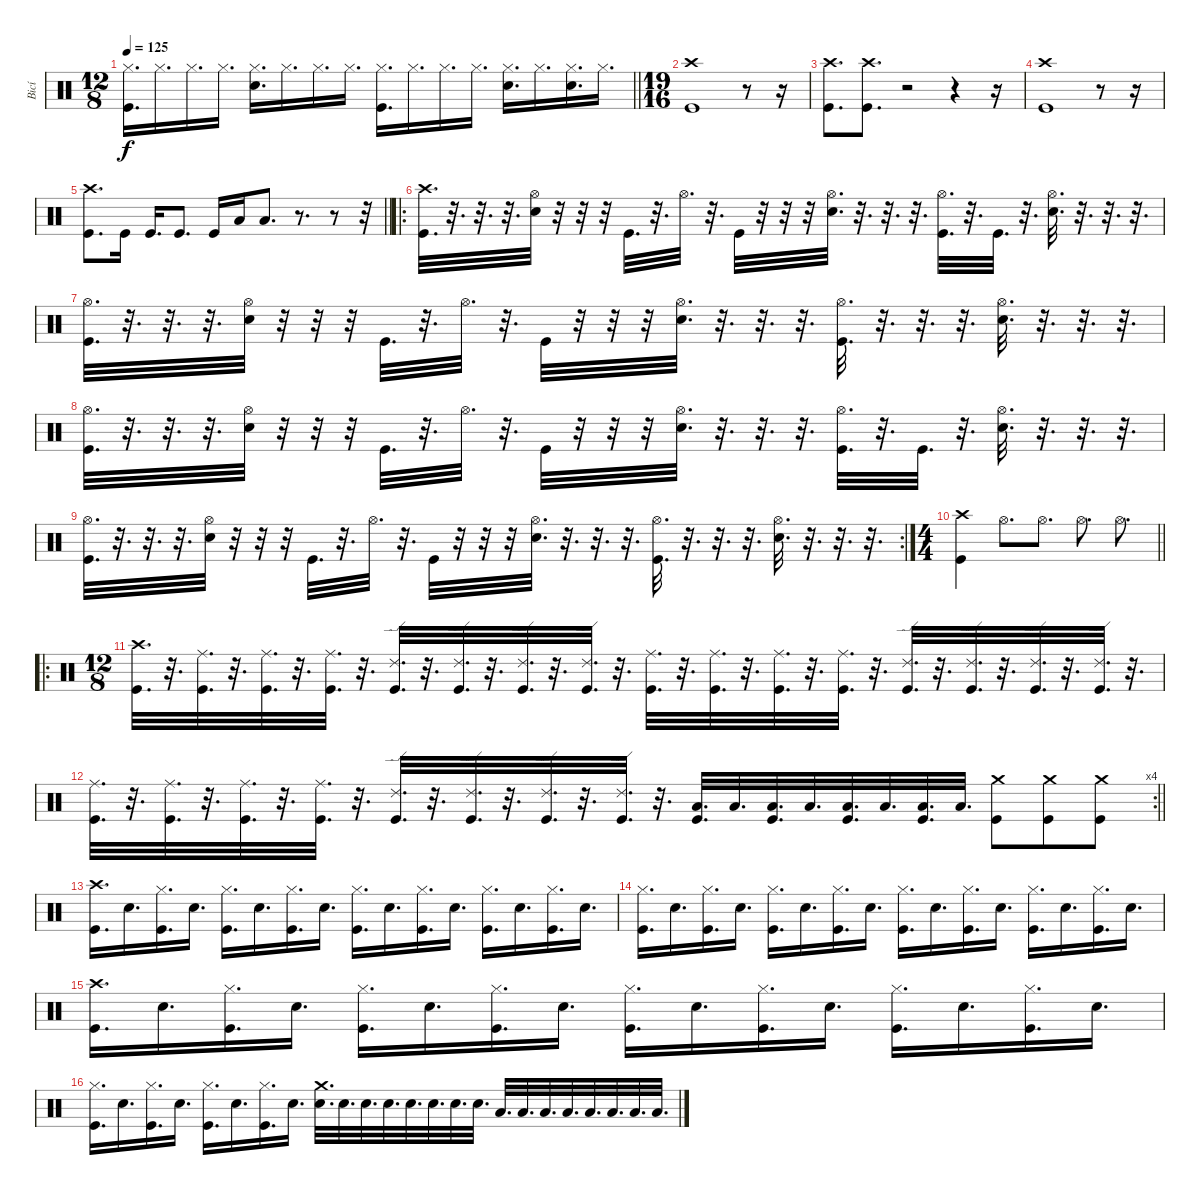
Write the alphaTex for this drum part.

\track ("Bicí" "Bicí") {instrument percussion}
\staff {score}
\articulation defaults
\ts (12 8)
\tempo 125
\clef neutral
\barLineRight lightlight
\ks c
("Hi-Hat (closed)" "Kick (hit)").16{d dy f} "Hi-Hat (closed)".16{d} "Hi-Hat (closed)".16{d} "Hi-Hat (closed)".16{d} ("Hi-Hat (closed)" "Electric Snare (hit)").16{d} "Hi-Hat (closed)".16{d} "Hi-Hat (closed)".16{d} "Hi-Hat (closed)".16{d} ("Hi-Hat (closed)" "Kick (hit)").16{d} "Hi-Hat (closed)".16{d} "Hi-Hat (closed)".16{d} "Hi-Hat (closed)".16{d} ("Hi-Hat (closed)" "Electric Snare (hit)").16{d} "Hi-Hat (closed)".16{d} ("Hi-Hat (closed)" "Electric Snare (hit)").16{d} "Hi-Hat (closed)".16{d} |
\ts (19 16)
("Crash high (hit)" "Kick (hit)").1 r.8 r.16 |
("Crash high (hit)" "Kick (hit)").8{d} ("Crash high (hit)" "Kick (hit)").8{d} r.2 r.4 r.16 |
("Crash high (hit)" "Kick (hit)").1 r.8 r.16 |
\barLineRight lightlight
("Crash high (hit)" "Kick (hit)").8{d} "Kick (hit)".16 "Kick (hit)".16{d} "Kick (hit)".8{d} "Kick (hit)".16 "Low Floor Tom (hit)".16 "Low Floor Tom (hit)".8{d} r.8{d} r.8 r.32 |
\ro
("Crash high (hit)" "Kick (hit)").32{d} r.32{d} r.32{d} r.32{d} ("Hi-Hat (open)" "Electric Snare (hit)").32 r.32 r.32 r.32 "Kick (hit)".32{d} r.32{d} "Hi-Hat (open)".32{d} r.32{d} "Kick (hit)".32 r.32 r.32 r.32 ("Hi-Hat (open)" "Electric Snare (hit)").32{d} r.32{d} r.32{d} r.32{d} ("Hi-Hat (open)" "Kick (hit)").32{d} r.32{d} "Kick (hit)".32{d} r.32{d} ("Hi-Hat (open)" "Electric Snare (hit)").32{d} r.32{d} r.32{d} r.32{d} |
("Hi-Hat (open)" "Kick (hit)").32{d} r.32{d} r.32{d} r.32{d} ("Hi-Hat (open)" "Electric Snare (hit)").32 r.32 r.32 r.32 "Kick (hit)".32{d} r.32{d} "Hi-Hat (open)".32{d} r.32{d} "Kick (hit)".32 r.32 r.32 r.32 ("Hi-Hat (open)" "Electric Snare (hit)").32{d} r.32{d} r.32{d} r.32{d} ("Hi-Hat (open)" "Kick (hit)").32{d} r.32{d} r.32{d} r.32{d} ("Hi-Hat (open)" "Electric Snare (hit)").32{d} r.32{d} r.32{d} r.32{d} |
("Hi-Hat (open)" "Kick (hit)").32{d} r.32{d} r.32{d} r.32{d} ("Hi-Hat (open)" "Electric Snare (hit)").32 r.32 r.32 r.32 "Kick (hit)".32{d} r.32{d} "Hi-Hat (open)".32{d} r.32{d} "Kick (hit)".32 r.32 r.32 r.32 ("Hi-Hat (open)" "Electric Snare (hit)").32{d} r.32{d} r.32{d} r.32{d} ("Hi-Hat (open)" "Kick (hit)").32{d} r.32{d} "Kick (hit)".32{d} r.32{d} ("Hi-Hat (open)" "Electric Snare (hit)").32{d} r.32{d} r.32{d} r.32{d} |
\rc 2
("Hi-Hat (open)" "Kick (hit)").32{d} r.32{d} r.32{d} r.32{d} ("Hi-Hat (open)" "Electric Snare (hit)").32 r.32 r.32 r.32 "Kick (hit)".32{d} r.32{d} "Hi-Hat (open)".32{d} r.32{d} "Kick (hit)".32 r.32 r.32 r.32 ("Hi-Hat (open)" "Electric Snare (hit)").32{d} r.32{d} r.32{d} r.32{d} ("Hi-Hat (open)" "Kick (hit)").32{d} r.32{d} r.32{d} r.32{d} ("Hi-Hat (open)" "Electric Snare (hit)").32{d} r.32{d} r.32{d} r.32{d} |
\ts (4 4)
\barLineRight lightlight
("Crash high (hit)" "Kick (hit)").4 "Hi-Hat (open)".8{d} "Hi-Hat (open)".8{d} "Hi-Hat (open)".8{d} "Hi-Hat (open)".8{d} |
\ro
\ts (12 8)
("Crash high (hit)" "Kick (hit)").32{d} r.32{d} ("Ride (middle)" "Kick (hit)").32{d} r.32{d} ("Ride (middle)" "Kick (hit)").32{d} r.32{d} ("Ride (middle)" "Kick (hit)").32{d} r.32{d} ("Ride (edge) 2" "Kick (hit)").32{d} r.32{d} ("Ride (edge) 2" "Kick (hit)").32{d} r.32{d} ("Ride (edge) 2" "Kick (hit)").32{d} r.32{d} ("Ride (edge) 2" "Kick (hit)").32{d} r.32{d} ("Ride (middle)" "Kick (hit)").32{d} r.32{d} ("Ride (middle)" "Kick (hit)").32{d} r.32{d} ("Ride (middle)" "Kick (hit)").32{d} r.32{d} ("Ride (middle)" "Kick (hit)").32{d} r.32{d} ("Ride (edge) 2" "Kick (hit)").32{d} r.32{d} ("Ride (edge) 2" "Kick (hit)").32{d} r.32{d} ("Ride (edge) 2" "Kick (hit)").32{d} r.32{d} ("Ride (edge) 2" "Kick (hit)").32{d} r.32{d} |
\rc 4
\barLineRight lightlight
("Ride (middle)" "Kick (hit)").32{d} r.32{d} ("Ride (middle)" "Kick (hit)").32{d} r.32{d} ("Ride (middle)" "Kick (hit)").32{d} r.32{d} ("Ride (middle)" "Kick (hit)").32{d} r.32{d} ("Ride (edge) 2" "Kick (hit)").32{d} r.32{d} ("Ride (edge) 2" "Kick (hit)").32{d} r.32{d} ("Ride (edge) 2" "Kick (hit)").32{d} r.32{d} ("Ride (edge) 2" "Kick (hit)").32{d} r.32{d} ("Low Tom (hit)" "Kick (hit)").32{d} "Low Tom (hit)".32{d} ("Low Tom (hit)" "Kick (hit)").32{d} "Low Tom (hit)".32{d} ("Low Tom (hit)" "Kick (hit)").32{d} "Low Tom (hit)".32{d} ("Low Tom (hit)" "Kick (hit)").32{d} "Low Tom (hit)".32{d} ("Crash medium (hit)" "Kick (hit)").8 ("Crash medium (hit)" "Kick (hit)").8 ("Crash medium (hit)" "Kick (hit)").8 |
("Crash high (hit)" "Kick (hit)").16{d} "Electric Snare (hit)".16{d} ("Hi-Hat (closed)" "Kick (hit)").16{d} "Electric Snare (hit)".16{d} ("Hi-Hat (closed)" "Kick (hit)").16{d} "Electric Snare (hit)".16{d} ("Hi-Hat (closed)" "Kick (hit)").16{d} "Electric Snare (hit)".16{d} ("Hi-Hat (closed)" "Kick (hit)").16{d} "Electric Snare (hit)".16{d} ("Hi-Hat (closed)" "Kick (hit)").16{d} "Electric Snare (hit)".16{d} ("Hi-Hat (closed)" "Kick (hit)").16{d} "Electric Snare (hit)".16{d} ("Hi-Hat (closed)" "Kick (hit)").16{d} "Electric Snare (hit)".16{d} |
("Hi-Hat (closed)" "Kick (hit)").16{d} "Electric Snare (hit)".16{d} ("Hi-Hat (closed)" "Kick (hit)").16{d} "Electric Snare (hit)".16{d} ("Hi-Hat (closed)" "Kick (hit)").16{d} "Electric Snare (hit)".16{d} ("Hi-Hat (closed)" "Kick (hit)").16{d} "Electric Snare (hit)".16{d} ("Hi-Hat (closed)" "Kick (hit)").16{d} "Electric Snare (hit)".16{d} ("Hi-Hat (closed)" "Kick (hit)").16{d} "Electric Snare (hit)".16{d} ("Hi-Hat (closed)" "Kick (hit)").16{d} "Electric Snare (hit)".16{d} ("Hi-Hat (closed)" "Kick (hit)").16{d} "Electric Snare (hit)".16{d} |
("Crash high (hit)" "Kick (hit)").16{d} "Electric Snare (hit)".16{d} ("Hi-Hat (closed)" "Kick (hit)").16{d} "Electric Snare (hit)".16{d} ("Hi-Hat (closed)" "Kick (hit)").16{d} "Electric Snare (hit)".16{d} ("Hi-Hat (closed)" "Kick (hit)").16{d} "Electric Snare (hit)".16{d} ("Hi-Hat (closed)" "Kick (hit)").16{d} "Electric Snare (hit)".16{d} ("Hi-Hat (closed)" "Kick (hit)").16{d} "Electric Snare (hit)".16{d} ("Hi-Hat (closed)" "Kick (hit)").16{d} "Electric Snare (hit)".16{d} ("Hi-Hat (closed)" "Kick (hit)").16{d} "Electric Snare (hit)".16{d} |
("Hi-Hat (closed)" "Kick (hit)").16{d} "Electric Snare (hit)".16{d} ("Hi-Hat (closed)" "Kick (hit)").16{d} "Electric Snare (hit)".16{d} ("Hi-Hat (closed)" "Kick (hit)").16{d} "Electric Snare (hit)".16{d} ("Hi-Hat (closed)" "Kick (hit)").16{d} "Electric Snare (hit)".16{d} ("Crash medium (hit)" "Electric Snare (hit)").32{d} "Electric Snare (hit)".32{d} "Electric Snare (hit)".32{d} "Electric Snare (hit)".32{d} "Electric Snare (hit)".32{d} "Electric Snare (hit)".32{d} "Electric Snare (hit)".32{d} "Electric Snare (hit)".32{d} "Low Floor Tom (hit)".32{d} "Low Floor Tom (hit)".32{d} "Low Floor Tom (hit)".32{d} "Low Floor Tom (hit)".32{d} "Low Floor Tom (hit)".32{d} "Low Floor Tom (hit)".32{d} "Low Floor Tom (hit)".32{d} "Low Floor Tom (hit)".32{d}
